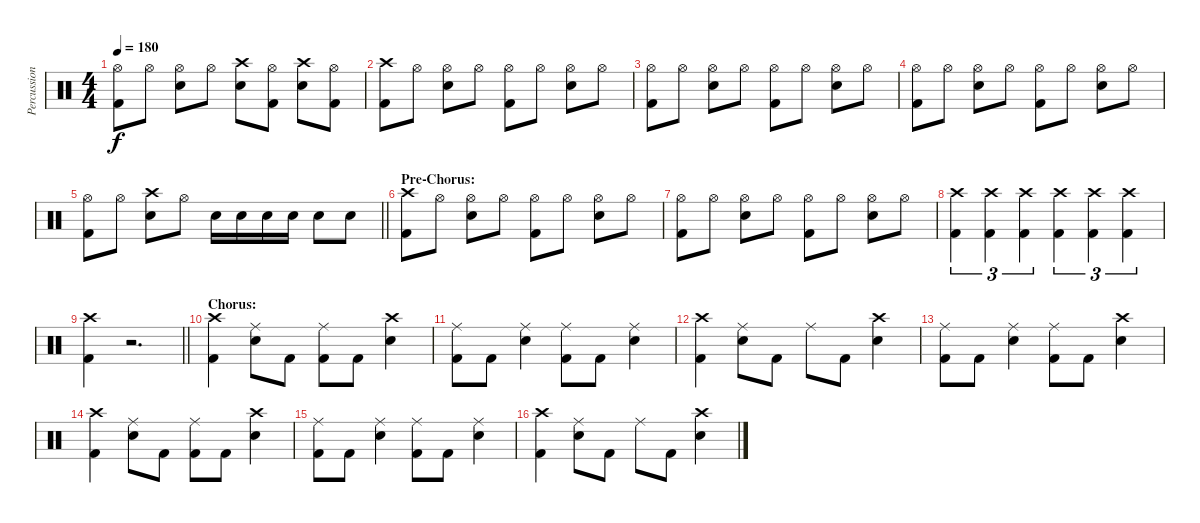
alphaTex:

\track ("Percussion" "Percussion") {instrument percussion}
\staff {score}
\articulation defaults
\ts (4 4)
\tempo 180
\clef neutral
\ks c
("Hi-Hat (open)" "Kick (hit) 2").8{dy f} "Hi-Hat (open)".8 ("Hi-Hat (open)" "Snare (hit) 2").8 "Hi-Hat (open)".8 ("Crash high (hit)" "Snare (hit) 2").8 ("Hi-Hat (open)" "Kick (hit) 2").8 ("Crash high (hit)" "Snare (hit) 2").8 ("Hi-Hat (open)" "Kick (hit) 2").8 |
("Crash high (hit)" "Kick (hit) 2").8 "Hi-Hat (open)".8 ("Hi-Hat (open)" "Snare (hit) 2").8 "Hi-Hat (open)".8 ("Hi-Hat (open)" "Kick (hit) 2").8 "Hi-Hat (open)".8 ("Hi-Hat (open)" "Snare (hit) 2").8 "Hi-Hat (open)".8 |
("Hi-Hat (open)" "Kick (hit) 2").8 "Hi-Hat (open)".8 ("Hi-Hat (open)" "Snare (hit) 2").8 "Hi-Hat (open)".8 ("Hi-Hat (open)" "Kick (hit) 2").8 "Hi-Hat (open)".8 ("Hi-Hat (open)" "Snare (hit) 2").8 "Hi-Hat (open)".8 |
("Hi-Hat (open)" "Kick (hit) 2").8 "Hi-Hat (open)".8 ("Hi-Hat (open)" "Snare (hit) 2").8 "Hi-Hat (open)".8 ("Hi-Hat (open)" "Kick (hit) 2").8 "Hi-Hat (open)".8 ("Hi-Hat (open)" "Snare (hit) 2").8 "Hi-Hat (open)".8 |
\barLineRight lightlight
("Hi-Hat (open)" "Kick (hit) 2").8 "Hi-Hat (open)".8 ("Crash high (hit)" "Snare (hit) 2").8 "Hi-Hat (open)".8 "Snare (hit) 2".16 "Snare (hit) 2".16 "Snare (hit) 2".16 "Snare (hit) 2".16 "Snare (hit) 2".8 "Snare (hit) 2".8 |
\section ("" "Pre-Chorus:")
("Crash high (hit)" "Kick (hit) 2").8 "Hi-Hat (open)".8 ("Hi-Hat (open)" "Snare (hit) 2").8 "Hi-Hat (open)".8 ("Hi-Hat (open)" "Kick (hit) 2").8 "Hi-Hat (open)".8 ("Hi-Hat (open)" "Snare (hit) 2").8 "Hi-Hat (open)".8 |
("Hi-Hat (open)" "Kick (hit) 2").8 "Hi-Hat (open)".8 ("Hi-Hat (open)" "Snare (hit) 2").8 "Hi-Hat (open)".8 ("Hi-Hat (open)" "Kick (hit) 2").8 "Hi-Hat (open)".8 ("Hi-Hat (open)" "Snare (hit) 2").8 "Hi-Hat (open)".8 |
("Crash high (hit)" "Kick (hit) 2").4{tu (3 2)} ("Crash high (hit)" "Kick (hit) 2").4{tu (3 2)} ("Crash high (hit)" "Kick (hit) 2").4{tu (3 2)} ("Crash high (hit)" "Kick (hit) 2").4{tu (3 2)} ("Crash high (hit)" "Kick (hit) 2").4{tu (3 2)} ("Crash high (hit)" "Kick (hit) 2").4{tu (3 2)} |
\barLineRight lightlight
("Crash high (hit)" "Kick (hit) 2").4 r.2{d} |
\section ("" "Chorus:")
("Crash high (hit)" "Kick (hit) 2").4 ("Ride (middle)" "Snare (hit) 2").8 "Kick (hit) 2".8 ("Ride (middle)" "Kick (hit) 2").8 "Kick (hit) 2".8 ("Crash high (hit)" "Snare (hit) 2").4 |
("Ride (middle)" "Kick (hit) 2").8 "Kick (hit) 2".8 ("Ride (middle)" "Snare (hit) 2").4 ("Ride (middle)" "Kick (hit) 2").8 "Kick (hit) 2".8 ("Ride (middle)" "Snare (hit) 2").4 |
("Crash high (hit)" "Kick (hit) 2").4 ("Ride (middle)" "Snare (hit) 2").8 "Kick (hit) 2".8 "Ride (middle)".8 "Kick (hit) 2".8 ("Crash high (hit)" "Snare (hit) 2").4 |
("Ride (middle)" "Kick (hit) 2").8 "Kick (hit) 2".8 ("Ride (middle)" "Snare (hit) 2").4 ("Ride (middle)" "Kick (hit) 2").8 "Kick (hit) 2".8 ("Crash high (hit)" "Snare (hit) 2").4 |
("Crash high (hit)" "Kick (hit) 2").4 ("Ride (middle)" "Snare (hit) 2").8 "Kick (hit) 2".8 ("Ride (middle)" "Kick (hit) 2").8 "Kick (hit) 2".8 ("Crash high (hit)" "Snare (hit) 2").4 |
("Ride (middle)" "Kick (hit) 2").8 "Kick (hit) 2".8 ("Ride (middle)" "Snare (hit) 2").4 ("Ride (middle)" "Kick (hit) 2").8 "Kick (hit) 2".8 ("Ride (middle)" "Snare (hit) 2").4 |
("Crash high (hit)" "Kick (hit) 2").4 ("Ride (middle)" "Snare (hit) 2").8 "Kick (hit) 2".8 "Ride (middle)".8 "Kick (hit) 2".8 ("Crash high (hit)" "Snare (hit) 2").4
